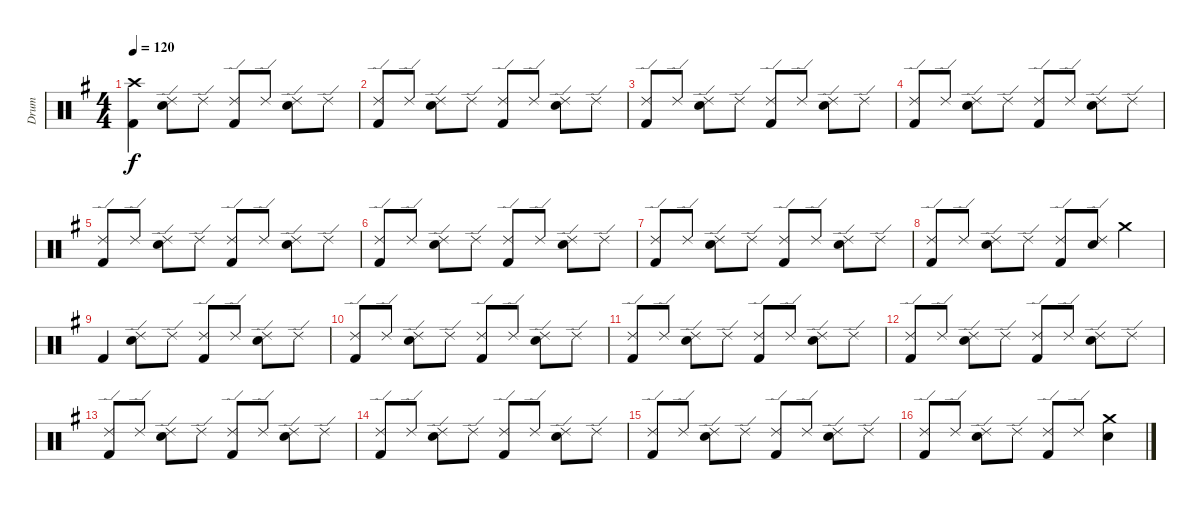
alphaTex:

\track ("Drum" "Drum") {instrument percussion}
\staff {score}
\articulation defaults
\ts (4 4)
\tempo 120
\clef neutral
\ks g
("Crash high (hit)" "Kick (hit) 2").4{dy f} ("Ride (edge) 2" "Electric Snare (hit)").8 "Ride (edge) 2".8 ("Ride (edge) 2" "Kick (hit) 2").8 "Ride (edge) 2".8 ("Ride (edge) 2" "Electric Snare (hit)").8 "Ride (edge) 2".8 |
("Ride (edge) 2" "Kick (hit) 2").8 "Ride (edge) 2".8 ("Ride (edge) 2" "Electric Snare (hit)").8 "Ride (edge) 2".8 ("Ride (edge) 2" "Kick (hit) 2").8 "Ride (edge) 2".8 ("Ride (edge) 2" "Electric Snare (hit)").8 "Ride (edge) 2".8 |
("Ride (edge) 2" "Kick (hit) 2").8 "Ride (edge) 2".8 ("Ride (edge) 2" "Electric Snare (hit)").8 "Ride (edge) 2".8 ("Ride (edge) 2" "Kick (hit) 2").8 "Ride (edge) 2".8 ("Ride (edge) 2" "Electric Snare (hit)").8 "Ride (edge) 2".8 |
("Ride (edge) 2" "Kick (hit) 2").8 "Ride (edge) 2".8 ("Ride (edge) 2" "Electric Snare (hit)").8 "Ride (edge) 2".8 ("Ride (edge) 2" "Kick (hit) 2").8 "Ride (edge) 2".8 ("Ride (edge) 2" "Electric Snare (hit)").8 "Ride (edge) 2".8 |
("Ride (edge) 2" "Kick (hit) 2").8 "Ride (edge) 2".8 ("Ride (edge) 2" "Electric Snare (hit)").8 "Ride (edge) 2".8 ("Ride (edge) 2" "Kick (hit) 2").8 "Ride (edge) 2".8 ("Ride (edge) 2" "Electric Snare (hit)").8 "Ride (edge) 2".8 |
("Ride (edge) 2" "Kick (hit) 2").8 "Ride (edge) 2".8 ("Ride (edge) 2" "Electric Snare (hit)").8 "Ride (edge) 2".8 ("Ride (edge) 2" "Kick (hit) 2").8 "Ride (edge) 2".8 ("Ride (edge) 2" "Electric Snare (hit)").8 "Ride (edge) 2".8 |
("Ride (edge) 2" "Kick (hit) 2").8 "Ride (edge) 2".8 ("Ride (edge) 2" "Electric Snare (hit)").8 "Ride (edge) 2".8 ("Ride (edge) 2" "Kick (hit) 2").8 "Ride (edge) 2".8 ("Ride (edge) 2" "Electric Snare (hit)").8 "Ride (edge) 2".8 |
("Ride (edge) 2" "Kick (hit) 2").8 "Ride (edge) 2".8 ("Ride (edge) 2" "Electric Snare (hit)").8 "Ride (edge) 2".8 ("Ride (edge) 2" "Kick (hit) 2").8 ("Ride (edge) 2" "Electric Snare (hit)").8 "Crash medium (hit)".4 |
"Kick (hit) 2".4 ("Ride (edge) 2" "Electric Snare (hit)").8 "Ride (edge) 2".8 ("Ride (edge) 2" "Kick (hit) 2").8 "Ride (edge) 2".8 ("Ride (edge) 2" "Electric Snare (hit)").8 "Ride (edge) 2".8 |
("Ride (edge) 2" "Kick (hit) 2").8 "Ride (edge) 2".8 ("Ride (edge) 2" "Electric Snare (hit)").8 "Ride (edge) 2".8 ("Ride (edge) 2" "Kick (hit) 2").8 "Ride (edge) 2".8 ("Ride (edge) 2" "Electric Snare (hit)").8 "Ride (edge) 2".8 |
("Ride (edge) 2" "Kick (hit) 2").8 "Ride (edge) 2".8 ("Ride (edge) 2" "Electric Snare (hit)").8 "Ride (edge) 2".8 ("Ride (edge) 2" "Kick (hit) 2").8 "Ride (edge) 2".8 ("Ride (edge) 2" "Electric Snare (hit)").8 "Ride (edge) 2".8 |
("Ride (edge) 2" "Kick (hit) 2").8 "Ride (edge) 2".8 ("Ride (edge) 2" "Electric Snare (hit)").8 "Ride (edge) 2".8 ("Ride (edge) 2" "Kick (hit) 2").8 "Ride (edge) 2".8 ("Ride (edge) 2" "Electric Snare (hit)").8 "Ride (edge) 2".8 |
("Ride (edge) 2" "Kick (hit) 2").8 "Ride (edge) 2".8 ("Ride (edge) 2" "Electric Snare (hit)").8 "Ride (edge) 2".8 ("Ride (edge) 2" "Kick (hit) 2").8 "Ride (edge) 2".8 ("Ride (edge) 2" "Electric Snare (hit)").8 "Ride (edge) 2".8 |
("Ride (edge) 2" "Kick (hit) 2").8 "Ride (edge) 2".8 ("Ride (edge) 2" "Electric Snare (hit)").8 "Ride (edge) 2".8 ("Ride (edge) 2" "Kick (hit) 2").8 "Ride (edge) 2".8 ("Ride (edge) 2" "Electric Snare (hit)").8 "Ride (edge) 2".8 |
("Ride (edge) 2" "Kick (hit) 2").8 "Ride (edge) 2".8 ("Ride (edge) 2" "Electric Snare (hit)").8 "Ride (edge) 2".8 ("Ride (edge) 2" "Kick (hit) 2").8 "Ride (edge) 2".8 ("Ride (edge) 2" "Electric Snare (hit)").8 "Ride (edge) 2".8 |
("Ride (edge) 2" "Kick (hit) 2").8 "Ride (edge) 2".8 ("Ride (edge) 2" "Electric Snare (hit)").8 "Ride (edge) 2".8 ("Ride (edge) 2" "Kick (hit) 2").8 "Ride (edge) 2".8 ("Electric Snare (hit)" "Crash medium (hit)").4
